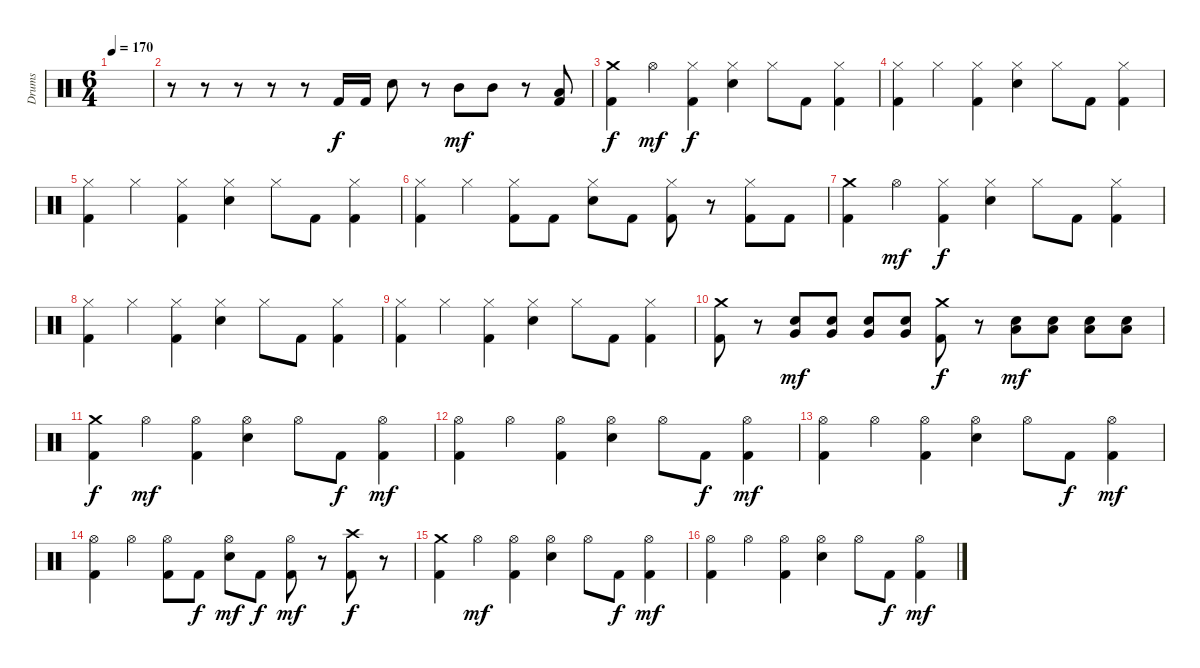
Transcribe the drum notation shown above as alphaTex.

\track ("Drums" "Drums") {instrument percussion}
\staff {score}
\articulation defaults
\ts (6 4)
\tempo 170
\clef neutral
\ks c
|
r.8 r.8 r.8 r.8 r.8 "Kick (hit) 2".16 "Kick (hit) 2".16 "Electric Snare (hit)".8 r.8 "Mid Tom (hit)".8{dy mf} "Mid Tom (hit)".8 r.8 ("Low Tom (hit)" "Kick (hit) 2").8 |
("Crash medium (hit)" "Kick (hit) 2").4{dy f} "Hi-Hat (open)".4{dy mf} ("Hi-Hat (closed)" "Kick (hit) 2").4{dy f} ("Hi-Hat (closed)" "Electric Snare (hit)").4 "Hi-Hat (closed)".8 "Kick (hit) 2".8 ("Hi-Hat (closed)" "Kick (hit) 2").4 |
("Hi-Hat (closed)" "Kick (hit) 2").4 "Hi-Hat (closed)".4 ("Hi-Hat (closed)" "Kick (hit) 2").4 ("Hi-Hat (closed)" "Electric Snare (hit)").4 "Hi-Hat (closed)".8 "Kick (hit) 2".8 ("Hi-Hat (closed)" "Kick (hit) 2").4 |
("Hi-Hat (closed)" "Kick (hit) 2").4 "Hi-Hat (closed)".4 ("Hi-Hat (closed)" "Kick (hit) 2").4 ("Hi-Hat (closed)" "Electric Snare (hit)").4 "Hi-Hat (closed)".8 "Kick (hit) 2".8 ("Hi-Hat (closed)" "Kick (hit) 2").4 |
("Hi-Hat (closed)" "Kick (hit) 2").4 "Hi-Hat (closed)".4 ("Hi-Hat (closed)" "Kick (hit) 2").8 "Kick (hit) 2".8 ("Hi-Hat (closed)" "Electric Snare (hit)").8 "Kick (hit) 2".8 ("Hi-Hat (closed)" "Kick (hit) 2").8 r.8 ("Hi-Hat (closed)" "Kick (hit) 2").8 "Kick (hit) 2".8 |
("Crash medium (hit)" "Kick (hit) 2").4 "Hi-Hat (open)".4{dy mf} ("Hi-Hat (closed)" "Kick (hit) 2").4{dy f} ("Hi-Hat (closed)" "Electric Snare (hit)").4 "Hi-Hat (closed)".8 "Kick (hit) 2".8 ("Hi-Hat (closed)" "Kick (hit) 2").4 |
("Hi-Hat (closed)" "Kick (hit) 2").4 "Hi-Hat (closed)".4 ("Hi-Hat (closed)" "Kick (hit) 2").4 ("Hi-Hat (closed)" "Electric Snare (hit)").4 "Hi-Hat (closed)".8 "Kick (hit) 2".8 ("Hi-Hat (closed)" "Kick (hit) 2").4 |
("Hi-Hat (closed)" "Kick (hit) 2").4 "Hi-Hat (closed)".4 ("Hi-Hat (closed)" "Kick (hit) 2").4 ("Hi-Hat (closed)" "Electric Snare (hit)").4 "Hi-Hat (closed)".8 "Kick (hit) 2".8 ("Hi-Hat (closed)" "Kick (hit) 2").4 |
("Crash medium (hit)" "Kick (hit) 2").8 r.8 ("Very Low Tom (hit)" "Electric Snare (hit)").8{dy mf} ("Very Low Tom (hit)" "Electric Snare (hit)").8 ("Very Low Tom (hit)" "Electric Snare (hit)").8 ("Very Low Tom (hit)" "Electric Snare (hit)").8 ("Crash medium (hit)" "Kick (hit) 2").8{dy f} r.8 ("Low Floor Tom (hit)" "Electric Snare (hit)").8{dy mf} ("Low Floor Tom (hit)" "Electric Snare (hit)").8 ("Low Floor Tom (hit)" "Electric Snare (hit)").8 ("Low Floor Tom (hit)" "Electric Snare (hit)").8 |
("Crash medium (hit)" "Kick (hit) 2").4{dy f} "Hi-Hat (open)".4{dy mf} ("Hi-Hat (open)" "Kick (hit) 2").4 ("Hi-Hat (open)" "Electric Snare (hit)").4 "Hi-Hat (open)".8 "Kick (hit) 2".8{dy f} ("Hi-Hat (open)" "Kick (hit) 2").4{dy mf} |
("Hi-Hat (open)" "Kick (hit) 2").4 "Hi-Hat (open)".4 ("Hi-Hat (open)" "Kick (hit) 2").4 ("Hi-Hat (open)" "Electric Snare (hit)").4 "Hi-Hat (open)".8 "Kick (hit) 2".8{dy f} ("Hi-Hat (open)" "Kick (hit) 2").4{dy mf} |
("Hi-Hat (open)" "Kick (hit) 2").4 "Hi-Hat (open)".4 ("Hi-Hat (open)" "Kick (hit) 2").4 ("Hi-Hat (open)" "Electric Snare (hit)").4 "Hi-Hat (open)".8 "Kick (hit) 2".8{dy f} ("Hi-Hat (open)" "Kick (hit) 2").4{dy mf} |
("Hi-Hat (open)" "Kick (hit) 2").4 "Hi-Hat (open)".4 ("Hi-Hat (open)" "Kick (hit) 2").8 "Kick (hit) 2".8{dy f} ("Hi-Hat (open)" "Electric Snare (hit)").8{dy mf} "Kick (hit) 2".8{dy f} ("Hi-Hat (open)" "Kick (hit) 2").8{dy mf} r.8 ("Crash high (hit)" "Kick (hit) 2").8{dy f} r.8 |
("Crash medium (hit)" "Kick (hit) 2").4 "Hi-Hat (open)".4{dy mf} ("Hi-Hat (open)" "Kick (hit) 2").4 ("Hi-Hat (open)" "Electric Snare (hit)").4 "Hi-Hat (open)".8 "Kick (hit) 2".8{dy f} ("Hi-Hat (open)" "Kick (hit) 2").4{dy mf} |
("Hi-Hat (open)" "Kick (hit) 2").4 "Hi-Hat (open)".4 ("Hi-Hat (open)" "Kick (hit) 2").4 ("Hi-Hat (open)" "Electric Snare (hit)").4 "Hi-Hat (open)".8 "Kick (hit) 2".8{dy f} ("Hi-Hat (open)" "Kick (hit) 2").4{dy mf}
